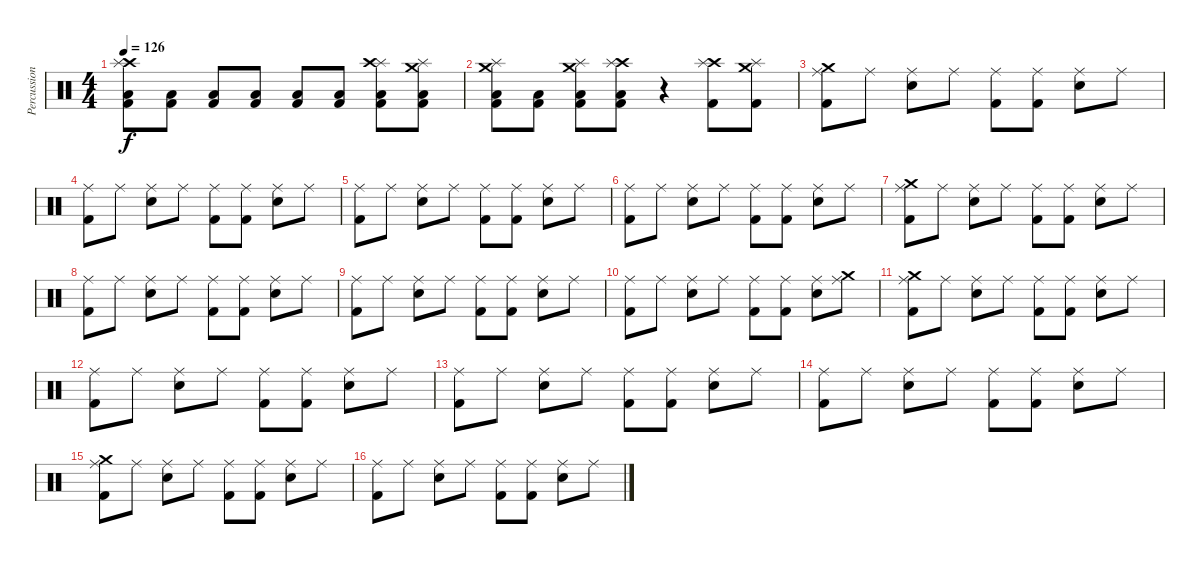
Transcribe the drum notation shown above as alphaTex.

\track ("Percussions" "Percussion") {instrument percussion}
\staff {score}
\articulation defaults
\ts (4 4)
\tempo 126
\clef neutral
\ks c
("Crash high (hit)" "Splash (hit)" "Low Floor Tom (hit)" "Kick (hit) 2").8{dy f} ("Low Floor Tom (hit)" "Kick (hit) 2").8 ("Low Floor Tom (hit)" "Kick (hit) 2").8 ("Low Floor Tom (hit)" "Kick (hit) 2").8 ("Low Floor Tom (hit)" "Kick (hit) 2").8 ("Low Floor Tom (hit)" "Kick (hit) 2").8 ("Splash (hit)" "Crash high (hit)" "Low Floor Tom (hit)" "Kick (hit) 2").8 ("Crash medium (hit)" "Splash (hit)" "Low Floor Tom (hit)" "Kick (hit) 2").8 |
("Crash medium (hit)" "Splash (hit)" "Low Floor Tom (hit)" "Kick (hit) 2").8 ("Low Floor Tom (hit)" "Kick (hit) 2").8 ("Crash medium (hit)" "Splash (hit)" "Low Floor Tom (hit)" "Kick (hit) 2").8 ("Crash high (hit)" "Splash (hit)" "Low Floor Tom (hit)" "Kick (hit) 2").8 r.4 ("Crash high (hit)" "Splash (hit)" "Kick (hit) 2").8 ("Crash medium (hit)" "Splash (hit)" "Kick (hit) 2").8 |
("Crash medium (hit)" "Ride (middle)" "Kick (hit) 2").8 "Ride (middle)".8 ("Ride (middle)" "Electric Snare (hit)").8 "Ride (middle)".8 ("Ride (middle)" "Kick (hit) 2").8 ("Ride (middle)" "Kick (hit) 2").8 ("Ride (middle)" "Electric Snare (hit)").8 "Ride (middle)".8 |
("Ride (middle)" "Kick (hit) 2").8 "Ride (middle)".8 ("Ride (middle)" "Electric Snare (hit)").8 "Ride (middle)".8 ("Ride (middle)" "Kick (hit) 2").8 ("Ride (middle)" "Kick (hit) 2").8 ("Ride (middle)" "Electric Snare (hit)").8 "Ride (middle)".8 |
("Ride (middle)" "Kick (hit) 2").8 "Ride (middle)".8 ("Ride (middle)" "Electric Snare (hit)").8 "Ride (middle)".8 ("Ride (middle)" "Kick (hit) 2").8 ("Ride (middle)" "Kick (hit) 2").8 ("Ride (middle)" "Electric Snare (hit)").8 "Ride (middle)".8 |
("Ride (middle)" "Kick (hit) 2").8 "Ride (middle)".8 ("Ride (middle)" "Electric Snare (hit)").8 "Ride (middle)".8 ("Ride (middle)" "Kick (hit) 2").8 ("Ride (middle)" "Kick (hit) 2").8 ("Ride (middle)" "Electric Snare (hit)").8 "Ride (middle)".8 |
("Crash medium (hit)" "Ride (middle)" "Kick (hit) 2").8 "Ride (middle)".8 ("Ride (middle)" "Electric Snare (hit)").8 "Ride (middle)".8 ("Ride (middle)" "Kick (hit) 2").8 ("Ride (middle)" "Kick (hit) 2").8 ("Ride (middle)" "Electric Snare (hit)").8 "Ride (middle)".8 |
("Ride (middle)" "Kick (hit) 2").8 "Ride (middle)".8 ("Ride (middle)" "Electric Snare (hit)").8 "Ride (middle)".8 ("Ride (middle)" "Kick (hit) 2").8 ("Ride (middle)" "Kick (hit) 2").8 ("Ride (middle)" "Electric Snare (hit)").8 "Ride (middle)".8 |
("Ride (middle)" "Kick (hit) 2").8 "Ride (middle)".8 ("Ride (middle)" "Electric Snare (hit)").8 "Ride (middle)".8 ("Ride (middle)" "Kick (hit) 2").8 ("Ride (middle)" "Kick (hit) 2").8 ("Ride (middle)" "Electric Snare (hit)").8 "Ride (middle)".8 |
("Ride (middle)" "Kick (hit) 2").8 "Ride (middle)".8 ("Ride (middle)" "Electric Snare (hit)").8 "Ride (middle)".8 ("Ride (middle)" "Kick (hit) 2").8 ("Ride (middle)" "Kick (hit) 2").8 ("Ride (middle)" "Electric Snare (hit)").8 ("Ride (middle)" "Crash medium (hit)").8 |
("Crash medium (hit)" "Ride (middle)" "Kick (hit) 2").8 "Ride (middle)".8 ("Ride (middle)" "Electric Snare (hit)").8 "Ride (middle)".8 ("Ride (middle)" "Kick (hit) 2").8 ("Ride (middle)" "Kick (hit) 2").8 ("Ride (middle)" "Electric Snare (hit)").8 "Ride (middle)".8 |
("Ride (middle)" "Kick (hit) 2").8 "Ride (middle)".8 ("Ride (middle)" "Electric Snare (hit)").8 "Ride (middle)".8 ("Ride (middle)" "Kick (hit) 2").8 ("Ride (middle)" "Kick (hit) 2").8 ("Ride (middle)" "Electric Snare (hit)").8 "Ride (middle)".8 |
("Ride (middle)" "Kick (hit) 2").8 "Ride (middle)".8 ("Ride (middle)" "Electric Snare (hit)").8 "Ride (middle)".8 ("Ride (middle)" "Kick (hit) 2").8 ("Ride (middle)" "Kick (hit) 2").8 ("Ride (middle)" "Electric Snare (hit)").8 "Ride (middle)".8 |
("Ride (middle)" "Kick (hit) 2").8 "Ride (middle)".8 ("Ride (middle)" "Electric Snare (hit)").8 "Ride (middle)".8 ("Ride (middle)" "Kick (hit) 2").8 ("Ride (middle)" "Kick (hit) 2").8 ("Ride (middle)" "Electric Snare (hit)").8 "Ride (middle)".8 |
("Crash medium (hit)" "Ride (middle)" "Kick (hit) 2").8 "Ride (middle)".8 ("Ride (middle)" "Electric Snare (hit)").8 "Ride (middle)".8 ("Ride (middle)" "Kick (hit) 2").8 ("Ride (middle)" "Kick (hit) 2").8 ("Ride (middle)" "Electric Snare (hit)").8 "Ride (middle)".8 |
("Ride (middle)" "Kick (hit) 2").8 "Ride (middle)".8 ("Ride (middle)" "Electric Snare (hit)").8 "Ride (middle)".8 ("Ride (middle)" "Kick (hit) 2").8 ("Ride (middle)" "Kick (hit) 2").8 ("Ride (middle)" "Electric Snare (hit)").8 "Ride (middle)".8
